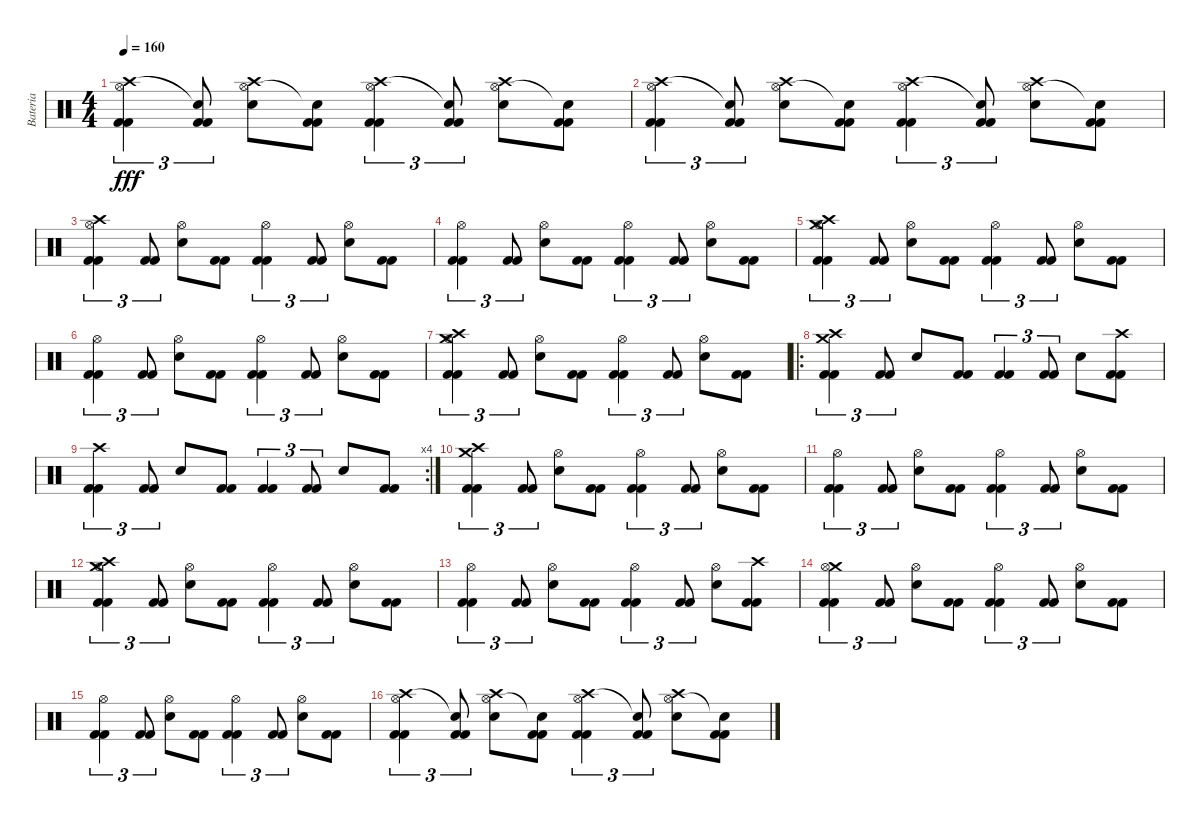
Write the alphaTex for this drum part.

\track ("Bateria" "Bateria") {instrument percussion}
\staff {score}
\articulation defaults
\ts (4 4)
\tempo 160
\clef neutral
\ks c
("Kick (hit) 2" "Kick (hit) 2" "Crash high (hit)" "Hi-Hat (open)").4{tu (3 2) dy fff} ("Kick (hit) 2" "Kick (hit) 2" "Snare (hit)"{t}).8{tu (3 2)} ("Snare (hit) 2" "Crash high (hit)" "Hi-Hat (open)").8 ("Kick (hit) 2" "Kick (hit) 2" "Snare (hit)"{t}).8 ("Kick (hit) 2" "Kick (hit) 2" "Crash high (hit)" "Hi-Hat (open)").4{tu (3 2)} ("Kick (hit) 2" "Kick (hit) 2" "Snare (hit)"{t}).8{tu (3 2)} ("Snare (hit) 2" "Crash high (hit)" "Hi-Hat (open)").8 ("Kick (hit) 2" "Kick (hit) 2" "Snare (hit)"{t}).8 |
("Kick (hit) 2" "Kick (hit) 2" "Crash high (hit)" "Hi-Hat (open)").4{tu (3 2)} ("Kick (hit) 2" "Kick (hit) 2" "Snare (hit)"{t}).8{tu (3 2)} ("Snare (hit) 2" "Crash high (hit)" "Hi-Hat (open)").8 ("Kick (hit) 2" "Kick (hit) 2" "Snare (hit)"{t}).8 ("Kick (hit) 2" "Kick (hit) 2" "Crash high (hit)" "Hi-Hat (open)").4{tu (3 2)} ("Kick (hit) 2" "Kick (hit) 2" "Snare (hit)"{t}).8{tu (3 2)} ("Snare (hit) 2" "Crash high (hit)" "Hi-Hat (open)").8 ("Kick (hit) 2" "Kick (hit) 2" "Snare (hit)"{t}).8 |
("Kick (hit) 2" "Kick (hit) 2" "Crash high (hit)" "Hi-Hat (open)").4{tu (3 2)} ("Kick (hit) 2" "Kick (hit) 2").8{tu (3 2)} ("Snare (hit) 2" "Hi-Hat (open)").8 ("Kick (hit) 2" "Kick (hit) 2").8 ("Kick (hit) 2" "Kick (hit) 2" "Hi-Hat (open)").4{tu (3 2)} ("Kick (hit) 2" "Kick (hit) 2").8{tu (3 2)} ("Snare (hit) 2" "Hi-Hat (open)").8 ("Kick (hit) 2" "Kick (hit) 2").8 |
("Kick (hit) 2" "Kick (hit) 2" "Hi-Hat (open)").4{tu (3 2)} ("Kick (hit) 2" "Kick (hit) 2").8{tu (3 2)} ("Snare (hit) 2" "Hi-Hat (open)").8 ("Kick (hit) 2" "Kick (hit) 2").8 ("Kick (hit) 2" "Kick (hit) 2" "Hi-Hat (open)").4{tu (3 2)} ("Kick (hit) 2" "Kick (hit) 2").8{tu (3 2)} ("Snare (hit) 2" "Hi-Hat (open)").8 ("Kick (hit) 2" "Kick (hit) 2").8 |
("Kick (hit) 2" "Kick (hit) 2" "Crash medium (hit)" "Crash high (hit)" "Hi-Hat (open)").4{tu (3 2)} ("Kick (hit) 2" "Kick (hit) 2").8{tu (3 2)} ("Snare (hit) 2" "Hi-Hat (open)").8 ("Kick (hit) 2" "Kick (hit) 2").8 ("Kick (hit) 2" "Kick (hit) 2" "Hi-Hat (open)").4{tu (3 2)} ("Kick (hit) 2" "Kick (hit) 2").8{tu (3 2)} ("Snare (hit) 2" "Hi-Hat (open)").8 ("Kick (hit) 2" "Kick (hit) 2").8 |
("Kick (hit) 2" "Kick (hit) 2" "Hi-Hat (open)").4{tu (3 2)} ("Kick (hit) 2" "Kick (hit) 2").8{tu (3 2)} ("Snare (hit) 2" "Hi-Hat (open)").8 ("Kick (hit) 2" "Kick (hit) 2").8 ("Kick (hit) 2" "Kick (hit) 2" "Hi-Hat (open)").4{tu (3 2)} ("Kick (hit) 2" "Kick (hit) 2").8{tu (3 2)} ("Snare (hit) 2" "Hi-Hat (open)").8 ("Kick (hit) 2" "Kick (hit) 2").8 |
("Kick (hit) 2" "Kick (hit) 2" "Crash medium (hit)" "Crash high (hit)" "Hi-Hat (open)").4{tu (3 2)} ("Kick (hit) 2" "Kick (hit) 2").8{tu (3 2)} ("Snare (hit) 2" "Hi-Hat (open)").8 ("Kick (hit) 2" "Kick (hit) 2").8 ("Kick (hit) 2" "Kick (hit) 2" "Hi-Hat (open)").4{tu (3 2)} ("Kick (hit) 2" "Kick (hit) 2").8{tu (3 2)} ("Snare (hit) 2" "Hi-Hat (open)").8 ("Kick (hit) 2" "Kick (hit) 2").8 |
\ro
("Kick (hit) 2" "Kick (hit) 2" "Crash medium (hit)" "Crash high (hit)").4{tu (3 2)} ("Kick (hit) 2" "Kick (hit) 2").8{tu (3 2)} "Snare (hit) 2".8 ("Kick (hit) 2" "Kick (hit) 2").8 ("Kick (hit) 2" "Kick (hit) 2").4{tu (3 2)} ("Kick (hit) 2" "Kick (hit) 2").8{tu (3 2)} "Snare (hit) 2".8 ("Kick (hit) 2" "Kick (hit) 2" "Crash high (hit)").8 |
\rc 4
("Kick (hit) 2" "Kick (hit) 2" "Crash high (hit)").4{tu (3 2)} ("Kick (hit) 2" "Kick (hit) 2").8{tu (3 2)} "Snare (hit) 2".8 ("Kick (hit) 2" "Kick (hit) 2").8 ("Kick (hit) 2" "Kick (hit) 2").4{tu (3 2)} ("Kick (hit) 2" "Kick (hit) 2").8{tu (3 2)} "Snare (hit) 2".8 ("Kick (hit) 2" "Kick (hit) 2").8 |
("Kick (hit) 2" "Kick (hit) 2" "Crash high (hit)" "Crash medium (hit)").4{tu (3 2)} ("Kick (hit) 2" "Kick (hit) 2").8{tu (3 2)} ("Snare (hit) 2" "Hi-Hat (open)").8 ("Kick (hit) 2" "Kick (hit) 2").8 ("Kick (hit) 2" "Kick (hit) 2" "Hi-Hat (open)").4{tu (3 2)} ("Kick (hit) 2" "Kick (hit) 2").8{tu (3 2)} ("Snare (hit) 2" "Hi-Hat (open)").8 ("Kick (hit) 2" "Kick (hit) 2").8 |
("Kick (hit) 2" "Kick (hit) 2" "Hi-Hat (open)").4{tu (3 2)} ("Kick (hit) 2" "Kick (hit) 2").8{tu (3 2)} ("Snare (hit) 2" "Hi-Hat (open)").8 ("Kick (hit) 2" "Kick (hit) 2").8 ("Kick (hit) 2" "Kick (hit) 2" "Hi-Hat (open)").4{tu (3 2)} ("Kick (hit) 2" "Kick (hit) 2").8{tu (3 2)} ("Snare (hit) 2" "Hi-Hat (open)").8 ("Kick (hit) 2" "Kick (hit) 2").8 |
("Kick (hit) 2" "Kick (hit) 2" "Crash medium (hit)" "Crash high (hit)" "Hi-Hat (open)").4{tu (3 2)} ("Kick (hit) 2" "Kick (hit) 2").8{tu (3 2)} ("Snare (hit) 2" "Hi-Hat (open)").8 ("Kick (hit) 2" "Kick (hit) 2").8 ("Kick (hit) 2" "Kick (hit) 2" "Hi-Hat (open)").4{tu (3 2)} ("Kick (hit) 2" "Kick (hit) 2").8{tu (3 2)} ("Snare (hit) 2" "Hi-Hat (open)").8 ("Kick (hit) 2" "Kick (hit) 2").8 |
("Kick (hit) 2" "Kick (hit) 2" "Hi-Hat (open)").4{tu (3 2)} ("Kick (hit) 2" "Kick (hit) 2").8{tu (3 2)} ("Snare (hit) 2" "Hi-Hat (open)").8 ("Kick (hit) 2" "Kick (hit) 2").8 ("Kick (hit) 2" "Kick (hit) 2" "Hi-Hat (open)").4{tu (3 2)} ("Kick (hit) 2" "Kick (hit) 2").8{tu (3 2)} ("Snare (hit) 2" "Hi-Hat (open)").8 ("Kick (hit) 2" "Kick (hit) 2" "Crash high (hit)").8 |
("Kick (hit) 2" "Kick (hit) 2" "Crash medium (hit)" "Hi-Hat (open)").4{tu (3 2)} ("Kick (hit) 2" "Kick (hit) 2").8{tu (3 2)} ("Snare (hit) 2" "Hi-Hat (open)").8 ("Kick (hit) 2" "Kick (hit) 2").8 ("Kick (hit) 2" "Kick (hit) 2" "Hi-Hat (open)").4{tu (3 2)} ("Kick (hit) 2" "Kick (hit) 2").8{tu (3 2)} ("Snare (hit) 2" "Hi-Hat (open)").8 ("Kick (hit) 2" "Kick (hit) 2").8 |
("Kick (hit) 2" "Kick (hit) 2" "Hi-Hat (open)").4{tu (3 2)} ("Kick (hit) 2" "Kick (hit) 2").8{tu (3 2)} ("Snare (hit) 2" "Hi-Hat (open)").8 ("Kick (hit) 2" "Kick (hit) 2").8 ("Kick (hit) 2" "Kick (hit) 2" "Hi-Hat (open)").4{tu (3 2)} ("Kick (hit) 2" "Kick (hit) 2").8{tu (3 2)} ("Snare (hit) 2" "Hi-Hat (open)").8 ("Kick (hit) 2" "Kick (hit) 2").8 |
("Kick (hit) 2" "Kick (hit) 2" "Crash high (hit)" "Hi-Hat (open)").4{tu (3 2)} ("Kick (hit) 2" "Kick (hit) 2" "Snare (hit)"{t}).8{tu (3 2)} ("Snare (hit) 2" "Crash high (hit)" "Hi-Hat (open)").8 ("Kick (hit) 2" "Kick (hit) 2" "Snare (hit)"{t}).8 ("Kick (hit) 2" "Kick (hit) 2" "Crash high (hit)" "Hi-Hat (open)").4{tu (3 2)} ("Kick (hit) 2" "Kick (hit) 2" "Snare (hit)"{t}).8{tu (3 2)} ("Snare (hit) 2" "Crash high (hit)" "Hi-Hat (open)").8 ("Kick (hit) 2" "Kick (hit) 2" "Snare (hit)"{t}).8
